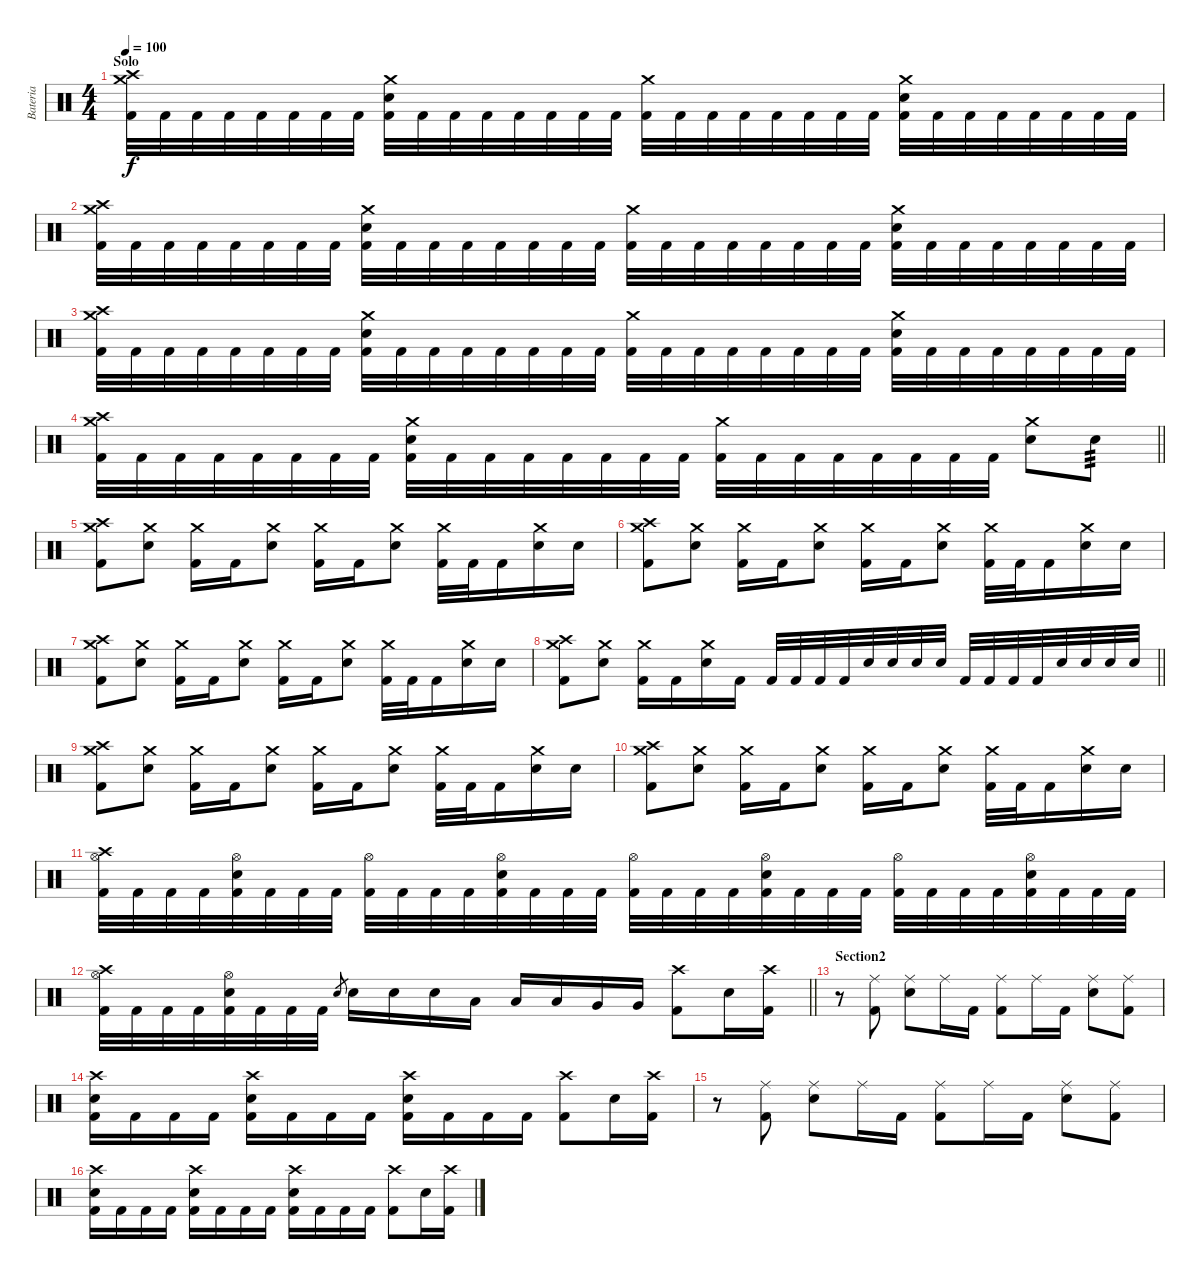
\track ("Bateria" "Bateria") {instrument percussion}
\staff {score}
\articulation defaults
\ts (4 4)
\section ("" "Solo")
\tempo 100
\clef neutral
\ks c
("Crash high (hit)" "Crash medium (hit)" "Kick (hit) 2").32{dy f} "Kick (hit) 2".32 "Kick (hit) 2".32 "Kick (hit) 2".32 "Kick (hit) 2".32 "Kick (hit) 2".32 "Kick (hit) 2".32 "Kick (hit) 2".32 ("Crash medium (hit)" "Snare (hit) 2" "Kick (hit) 2").32 "Kick (hit) 2".32 "Kick (hit) 2".32 "Kick (hit) 2".32 "Kick (hit) 2".32 "Kick (hit) 2".32 "Kick (hit) 2".32 "Kick (hit) 2".32 ("Crash medium (hit)" "Kick (hit) 2").32 "Kick (hit) 2".32 "Kick (hit) 2".32 "Kick (hit) 2".32 "Kick (hit) 2".32 "Kick (hit) 2".32 "Kick (hit) 2".32 "Kick (hit) 2".32 ("Crash medium (hit)" "Snare (hit) 2" "Kick (hit) 2").32 "Kick (hit) 2".32 "Kick (hit) 2".32 "Kick (hit) 2".32 "Kick (hit) 2".32 "Kick (hit) 2".32 "Kick (hit) 2".32 "Kick (hit) 2".32 |
("Crash high (hit)" "Crash medium (hit)" "Kick (hit) 2").32 "Kick (hit) 2".32 "Kick (hit) 2".32 "Kick (hit) 2".32 "Kick (hit) 2".32 "Kick (hit) 2".32 "Kick (hit) 2".32 "Kick (hit) 2".32 ("Crash medium (hit)" "Snare (hit) 2" "Kick (hit) 2").32 "Kick (hit) 2".32 "Kick (hit) 2".32 "Kick (hit) 2".32 "Kick (hit) 2".32 "Kick (hit) 2".32 "Kick (hit) 2".32 "Kick (hit) 2".32 ("Crash medium (hit)" "Kick (hit) 2").32 "Kick (hit) 2".32 "Kick (hit) 2".32 "Kick (hit) 2".32 "Kick (hit) 2".32 "Kick (hit) 2".32 "Kick (hit) 2".32 "Kick (hit) 2".32 ("Crash medium (hit)" "Snare (hit) 2" "Kick (hit) 2").32 "Kick (hit) 2".32 "Kick (hit) 2".32 "Kick (hit) 2".32 "Kick (hit) 2".32 "Kick (hit) 2".32 "Kick (hit) 2".32 "Kick (hit) 2".32 |
("Crash high (hit)" "Crash medium (hit)" "Kick (hit) 2").32 "Kick (hit) 2".32 "Kick (hit) 2".32 "Kick (hit) 2".32 "Kick (hit) 2".32 "Kick (hit) 2".32 "Kick (hit) 2".32 "Kick (hit) 2".32 ("Crash medium (hit)" "Snare (hit) 2" "Kick (hit) 2").32 "Kick (hit) 2".32 "Kick (hit) 2".32 "Kick (hit) 2".32 "Kick (hit) 2".32 "Kick (hit) 2".32 "Kick (hit) 2".32 "Kick (hit) 2".32 ("Crash medium (hit)" "Kick (hit) 2").32 "Kick (hit) 2".32 "Kick (hit) 2".32 "Kick (hit) 2".32 "Kick (hit) 2".32 "Kick (hit) 2".32 "Kick (hit) 2".32 "Kick (hit) 2".32 ("Crash medium (hit)" "Snare (hit) 2" "Kick (hit) 2").32 "Kick (hit) 2".32 "Kick (hit) 2".32 "Kick (hit) 2".32 "Kick (hit) 2".32 "Kick (hit) 2".32 "Kick (hit) 2".32 "Kick (hit) 2".32 |
\barLineRight lightlight
("Crash high (hit)" "Crash medium (hit)" "Kick (hit) 2").32 "Kick (hit) 2".32 "Kick (hit) 2".32 "Kick (hit) 2".32 "Kick (hit) 2".32 "Kick (hit) 2".32 "Kick (hit) 2".32 "Kick (hit) 2".32 ("Crash medium (hit)" "Snare (hit) 2" "Kick (hit) 2").32 "Kick (hit) 2".32 "Kick (hit) 2".32 "Kick (hit) 2".32 "Kick (hit) 2".32 "Kick (hit) 2".32 "Kick (hit) 2".32 "Kick (hit) 2".32 ("Crash medium (hit)" "Kick (hit) 2").32 "Kick (hit) 2".32 "Kick (hit) 2".32 "Kick (hit) 2".32 "Kick (hit) 2".32 "Kick (hit) 2".32 "Kick (hit) 2".32 "Kick (hit) 2".32 ("Crash medium (hit)" "Snare (hit) 2").8 "Snare (hit) 2".8{tp 3} |
("Crash high (hit)" "Crash medium (hit)" "Kick (hit) 2").8 ("Crash medium (hit)" "Snare (hit) 2").8 ("Crash medium (hit)" "Kick (hit) 2").16 "Kick (hit) 2".16 ("Crash medium (hit)" "Snare (hit) 2").8 ("Crash medium (hit)" "Kick (hit) 2").16 "Kick (hit) 2".16 ("Crash medium (hit)" "Snare (hit) 2").8 ("Crash medium (hit)" "Kick (hit) 2").32 "Kick (hit) 2".32 "Kick (hit) 2".16 ("Crash medium (hit)" "Snare (hit) 2").16 "Snare (hit) 2".16 |
("Crash high (hit)" "Crash medium (hit)" "Kick (hit) 2").8 ("Crash medium (hit)" "Snare (hit) 2").8 ("Crash medium (hit)" "Kick (hit) 2").16 "Kick (hit) 2".16 ("Crash medium (hit)" "Snare (hit) 2").8 ("Crash medium (hit)" "Kick (hit) 2").16 "Kick (hit) 2".16 ("Crash medium (hit)" "Snare (hit) 2").8 ("Crash medium (hit)" "Kick (hit) 2").32 "Kick (hit) 2".32 "Kick (hit) 2".16 ("Crash medium (hit)" "Snare (hit) 2").16 "Snare (hit) 2".16 |
("Crash high (hit)" "Crash medium (hit)" "Kick (hit) 2").8 ("Crash medium (hit)" "Snare (hit) 2").8 ("Crash medium (hit)" "Kick (hit) 2").16 "Kick (hit) 2".16 ("Crash medium (hit)" "Snare (hit) 2").8 ("Crash medium (hit)" "Kick (hit) 2").16 "Kick (hit) 2".16 ("Crash medium (hit)" "Snare (hit) 2").8 ("Crash medium (hit)" "Kick (hit) 2").32 "Kick (hit) 2".32 "Kick (hit) 2".16 ("Crash medium (hit)" "Snare (hit) 2").16 "Snare (hit) 2".16 |
\barLineRight lightlight
("Crash high (hit)" "Crash medium (hit)" "Kick (hit) 2").8 ("Crash medium (hit)" "Snare (hit) 2").8 ("Crash medium (hit)" "Kick (hit) 2").16 "Kick (hit) 2".16 ("Crash medium (hit)" "Snare (hit) 2").16 "Kick (hit) 2".16 "Kick (hit) 2".32 "Kick (hit) 2".32 "Kick (hit) 2".32 "Kick (hit) 2".32 "Snare (hit) 2".32 "Snare (hit) 2".32 "Snare (hit) 2".32 "Snare (hit) 2".32 "Kick (hit) 2".32 "Kick (hit) 2".32 "Kick (hit) 2".32 "Kick (hit) 2".32 "Snare (hit) 2".32 "Snare (hit) 2".32 "Snare (hit) 2".32 "Snare (hit) 2".32 |
("Crash high (hit)" "Crash medium (hit)" "Kick (hit) 2").8 ("Crash medium (hit)" "Snare (hit) 2").8 ("Crash medium (hit)" "Kick (hit) 2").16 "Kick (hit) 2".16 ("Crash medium (hit)" "Snare (hit) 2").8 ("Crash medium (hit)" "Kick (hit) 2").16 "Kick (hit) 2".16 ("Crash medium (hit)" "Snare (hit) 2").8 ("Crash medium (hit)" "Kick (hit) 2").32 "Kick (hit) 2".32 "Kick (hit) 2".16 ("Crash medium (hit)" "Snare (hit) 2").16 "Snare (hit) 2".16 |
("Crash high (hit)" "Crash medium (hit)" "Kick (hit) 2").8 ("Crash medium (hit)" "Snare (hit) 2").8 ("Crash medium (hit)" "Kick (hit) 2").16 "Kick (hit) 2".16 ("Crash medium (hit)" "Snare (hit) 2").8 ("Crash medium (hit)" "Kick (hit) 2").16 "Kick (hit) 2".16 ("Crash medium (hit)" "Snare (hit) 2").8 ("Crash medium (hit)" "Kick (hit) 2").32 "Kick (hit) 2".32 "Kick (hit) 2".16 ("Crash medium (hit)" "Snare (hit) 2").16 "Snare (hit) 2".16 |
("Crash high (hit)" "Hi-Hat (open)" "Kick (hit) 2").32 "Kick (hit) 2".32 "Kick (hit) 2".32 "Kick (hit) 2".32 ("Hi-Hat (open)" "Snare (hit) 2" "Kick (hit) 2").32 "Kick (hit) 2".32 "Kick (hit) 2".32 "Kick (hit) 2".32 ("Hi-Hat (open)" "Kick (hit) 2").32 "Kick (hit) 2".32 "Kick (hit) 2".32 "Kick (hit) 2".32 ("Hi-Hat (open)" "Snare (hit) 2" "Kick (hit) 2").32 "Kick (hit) 2".32 "Kick (hit) 2".32 "Kick (hit) 2".32 ("Hi-Hat (open)" "Kick (hit) 2").32 "Kick (hit) 2".32 "Kick (hit) 2".32 "Kick (hit) 2".32 ("Hi-Hat (open)" "Snare (hit) 2" "Kick (hit) 2").32 "Kick (hit) 2".32 "Kick (hit) 2".32 "Kick (hit) 2".32 ("Hi-Hat (open)" "Kick (hit) 2").32 "Kick (hit) 2".32 "Kick (hit) 2".32 "Kick (hit) 2".32 ("Hi-Hat (open)" "Snare (hit) 2" "Kick (hit) 2").32 "Kick (hit) 2".32 "Kick (hit) 2".32 "Kick (hit) 2".32 |
\barLineRight lightlight
("Crash high (hit)" "Hi-Hat (open)" "Kick (hit) 2").32 "Kick (hit) 2".32 "Kick (hit) 2".32 "Kick (hit) 2".32 ("Hi-Hat (open)" "Snare (hit) 2" "Kick (hit) 2").32 "Kick (hit) 2".32 "Kick (hit) 2".32 "Kick (hit) 2".32 "Snare (hit) 2".8{gr} "Snare (hit) 2".16 "Snare (hit) 2".16 "Snare (hit) 2".16 "Low Tom (hit)".16 "Low Tom (hit)".16 "Low Tom (hit)".16 "Very Low Tom (hit)".16 "Very Low Tom (hit)".16 ("Crash high (hit)" "Kick (hit) 2").8 "Snare (hit) 2".16 ("Crash high (hit)" "Kick (hit) 2").16 |
\section ("" "Section2")
r.8 ("Ride (middle)" "Kick (hit) 2").8 ("Ride (middle)" "Snare (hit) 2").8 "Ride (middle)".16 "Kick (hit) 2".16 ("Ride (middle)" "Kick (hit) 2").8 "Ride (middle)".16 "Kick (hit) 2".16 ("Ride (middle)" "Snare (hit) 2").8 ("Ride (middle)" "Kick (hit) 2").8 |
("Crash high (hit)" "Snare (hit) 2" "Kick (hit) 2").16 "Kick (hit) 2".16 "Kick (hit) 2".16 "Kick (hit) 2".16 ("Crash high (hit)" "Snare (hit) 2" "Kick (hit) 2").16 "Kick (hit) 2".16 "Kick (hit) 2".16 "Kick (hit) 2".16 ("Crash high (hit)" "Snare (hit) 2" "Kick (hit) 2").16 "Kick (hit) 2".16 "Kick (hit) 2".16 "Kick (hit) 2".16 ("Crash high (hit)" "Kick (hit) 2").8 "Snare (hit) 2".16 ("Crash high (hit)" "Kick (hit) 2").16 |
r.8 ("Ride (middle)" "Kick (hit) 2").8 ("Ride (middle)" "Snare (hit) 2").8 "Ride (middle)".16 "Kick (hit) 2".16 ("Ride (middle)" "Kick (hit) 2").8 "Ride (middle)".16 "Kick (hit) 2".16 ("Ride (middle)" "Snare (hit) 2").8 ("Ride (middle)" "Kick (hit) 2").8 |
("Crash high (hit)" "Snare (hit) 2" "Kick (hit) 2").16 "Kick (hit) 2".16 "Kick (hit) 2".16 "Kick (hit) 2".16 ("Crash high (hit)" "Snare (hit) 2" "Kick (hit) 2").16 "Kick (hit) 2".16 "Kick (hit) 2".16 "Kick (hit) 2".16 ("Crash high (hit)" "Snare (hit) 2" "Kick (hit) 2").16 "Kick (hit) 2".16 "Kick (hit) 2".16 "Kick (hit) 2".16 ("Crash high (hit)" "Kick (hit) 2").8 "Snare (hit) 2".16 ("Crash high (hit)" "Kick (hit) 2").16
